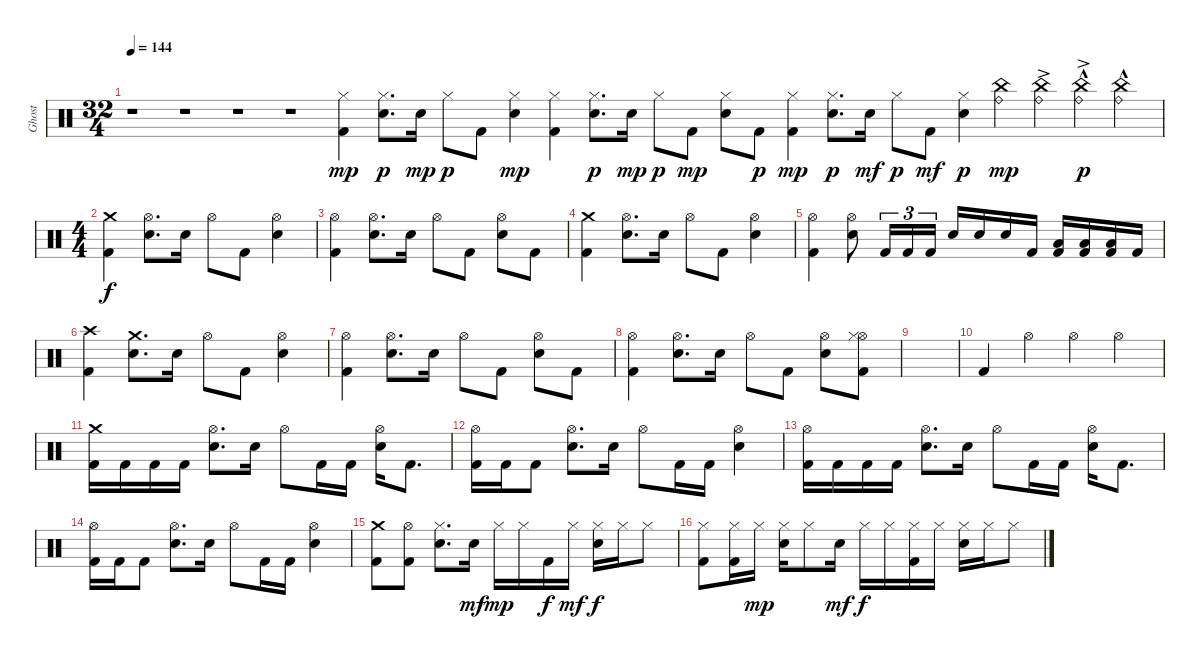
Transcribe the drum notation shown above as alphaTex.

\track ("Ghost" "Ghost") {instrument percussion}
\staff {score}
\articulation defaults
\ts (32 4)
\tempo 144
\clef neutral
\ks c
r.1{dy mp} r.1 r.1 r.1 ("Hi-Hat (closed)" "Kick (hit) 2").4 ("Hi-Hat (closed)" "Snare (hit) 2").8{d dy p} "Snare (hit) 2".16{dy mp} "Hi-Hat (closed)".8{dy p} "Kick (hit) 2".8 ("Hi-Hat (closed)" "Snare (hit) 2").4{dy mp} ("Hi-Hat (closed)" "Kick (hit) 2").4 ("Hi-Hat (closed)" "Snare (hit) 2").8{d dy p} "Snare (hit) 2".16{dy mp} "Hi-Hat (closed)".8{dy p} "Kick (hit) 2".8{dy mp} ("Hi-Hat (closed)" "Snare (hit) 2").8 "Kick (hit) 2".8{dy p} ("Hi-Hat (closed)" "Kick (hit) 2").4{dy mp} ("Hi-Hat (closed)" "Snare (hit) 2").8{d dy p} "Snare (hit) 2".16{dy mf} "Hi-Hat (closed)".8{dy p} "Kick (hit) 2".8{dy mf} ("Hi-Hat (closed)" "Snare (hit) 2").4{dy p} ("Ride (bell)" "China (hit)").4{dy mp} ("Ride (bell)"{ac} "China (hit)"{ac}).4 ("Ride (bell)"{hac} "China (hit)"{ac}).4{dy p} ("Ride (bell)"{hac} "China (hit)"{hac}).4 |
\ts (4 4)
("Crash medium (hit)" "Kick (hit) 2").4{dy f} ("Hi-Hat (open)" "Electric Snare (hit)").8{d} "Electric Snare (hit)".16 "Hi-Hat (open)".8 "Kick (hit) 2".8 ("Hi-Hat (open)" "Electric Snare (hit)").4 |
("Hi-Hat (open)" "Kick (hit) 2").4 ("Hi-Hat (open)" "Electric Snare (hit)").8{d} "Electric Snare (hit)".16 "Hi-Hat (open)".8 "Kick (hit) 2".8 ("Hi-Hat (open)" "Electric Snare (hit)").8 "Kick (hit) 2".8 |
("Crash medium (hit)" "Kick (hit) 2").4 ("Hi-Hat (open)" "Electric Snare (hit)").8{d} "Electric Snare (hit)".16 "Hi-Hat (open)".8 "Kick (hit) 2".8 ("Hi-Hat (open)" "Electric Snare (hit)").4 |
("Hi-Hat (open)" "Kick (hit) 2").4 ("Hi-Hat (open)" "Electric Snare (hit)").8 "Kick (hit) 2".16{tu (3 2)} "Kick (hit) 2".16{tu (3 2)} "Kick (hit) 2".16{tu (3 2)} "Electric Snare (hit)".16 "Electric Snare (hit)".16 "Electric Snare (hit)".16 "Kick (hit) 2".16 ("Low Tom (hit)" "Kick (hit) 2").16 ("Low Tom (hit)" "Kick (hit) 2").16 ("Low Tom (hit)" "Kick (hit) 2").16 "Kick (hit) 2".16 |
("Crash high (hit)" "Kick (hit) 2").4 ("Crash medium (hit)" "Electric Snare (hit)").8{d} "Electric Snare (hit)".16 "Hi-Hat (open)".8 "Kick (hit) 2".8 ("Hi-Hat (open)" "Electric Snare (hit)").4 |
("Hi-Hat (open)" "Kick (hit) 2").4 ("Hi-Hat (open)" "Electric Snare (hit)").8{d} "Electric Snare (hit)".16 "Hi-Hat (open)".8 "Kick (hit) 2".8 ("Hi-Hat (open)" "Electric Snare (hit)").8 "Kick (hit) 2".8 |
("Hi-Hat (open)" "Kick (hit) 2").4 ("Hi-Hat (open)" "Electric Snare (hit)").8{d} "Electric Snare (hit)".16 "Hi-Hat (open)".8 "Kick (hit) 2".8 ("Hi-Hat (open)" "Electric Snare (hit)").8 ("Hi-Hat (open)" "Hi-Hat (closed)" "Kick (hit) 2").8 |
|
"Kick (hit) 2".4 "Hi-Hat (open)".4 "Hi-Hat (open)".4 "Hi-Hat (open)".4 |
("Crash medium (hit)" "Kick (hit) 2").16 "Kick (hit) 2".16 "Kick (hit) 2".16 "Kick (hit) 2".16 ("Hi-Hat (open)" "Electric Snare (hit)").8{d} "Electric Snare (hit)".16 "Hi-Hat (open)".8 "Kick (hit) 2".16 "Kick (hit) 2".16 ("Hi-Hat (open)" "Electric Snare (hit)").16 "Kick (hit) 2".8{d} |
("Hi-Hat (open)" "Kick (hit) 2").16 "Kick (hit) 2".16 "Kick (hit) 2".8 ("Hi-Hat (open)" "Electric Snare (hit)").8{d} "Electric Snare (hit)".16 "Hi-Hat (open)".8 "Kick (hit) 2".16 "Kick (hit) 2".16 ("Hi-Hat (open)" "Electric Snare (hit)").4 |
("Hi-Hat (open)" "Kick (hit) 2").16 "Kick (hit) 2".16 "Kick (hit) 2".16 "Kick (hit) 2".16 ("Hi-Hat (open)" "Electric Snare (hit)").8{d} "Electric Snare (hit)".16 "Hi-Hat (open)".8 "Kick (hit) 2".16 "Kick (hit) 2".16 ("Hi-Hat (open)" "Electric Snare (hit)").16 "Kick (hit) 2".8{d} |
("Hi-Hat (open)" "Kick (hit) 2").16 "Kick (hit) 2".16 "Kick (hit) 2".8 ("Hi-Hat (open)" "Electric Snare (hit)").8{d} "Electric Snare (hit)".16 "Hi-Hat (open)".8 "Kick (hit) 2".16 "Kick (hit) 2".16 ("Hi-Hat (open)" "Electric Snare (hit)").4 |
("Crash medium (hit)" "Kick (hit) 2").8 ("Hi-Hat (open)" "Kick (hit) 2").8 ("Hi-Hat (closed)" "Electric Snare (hit)").8{d} "Electric Snare (hit)".16{dy mf} "Hi-Hat (closed)".16{dy mp} "Hi-Hat (closed)".16 "Kick (hit) 2".16{dy f} "Hi-Hat (closed)".16{dy mf} ("Hi-Hat (closed)" "Electric Snare (hit)").16{dy f} "Hi-Hat (closed)".16 "Hi-Hat (closed)".8 |
("Hi-Hat (closed)" "Kick (hit) 2").8 ("Hi-Hat (closed)" "Kick (hit) 2").16 "Hi-Hat (closed)".16{dy mp} ("Hi-Hat (closed)" "Electric Snare (hit)").16 "Hi-Hat (closed)".8 "Electric Snare (hit)".16{dy mf} "Hi-Hat (closed)".16{dy f} "Hi-Hat (closed)".16 ("Hi-Hat (closed)" "Kick (hit) 2").16 "Hi-Hat (closed)".16 ("Hi-Hat (closed)" "Electric Snare (hit)").16 "Hi-Hat (closed)".16 "Hi-Hat (closed)".8
